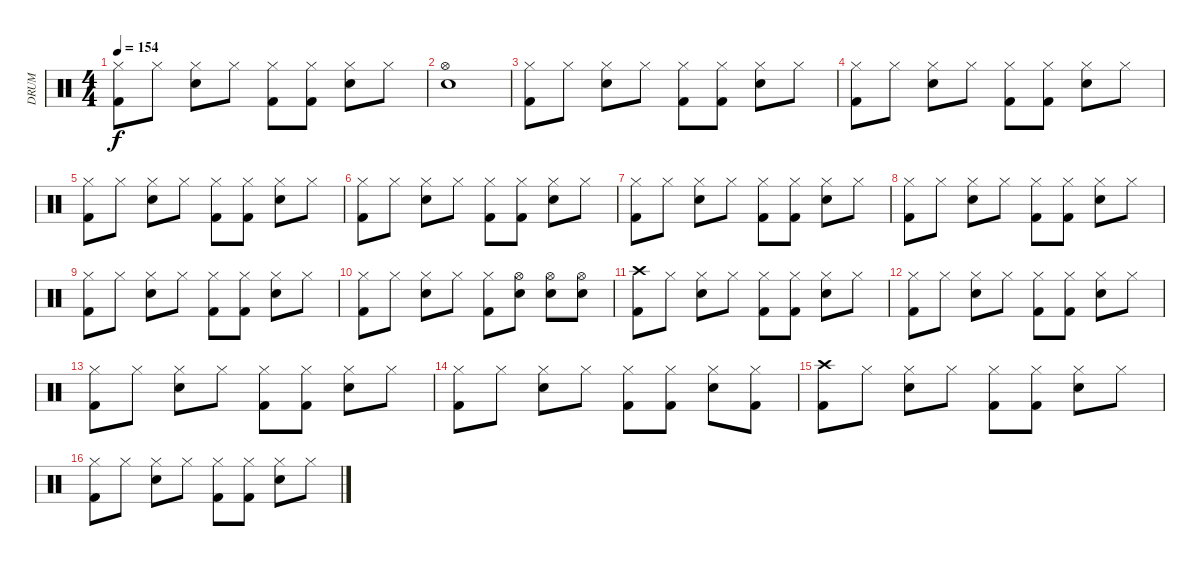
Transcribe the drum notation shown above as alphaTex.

\track ("DRUM" "DRUM") {instrument percussion}
\staff {score}
\articulation defaults
\ts (4 4)
\tempo 154
\clef neutral
\ks c
("Hi-Hat (closed)" "Kick (hit) 2").8{dy f} "Hi-Hat (closed)".8 ("Hi-Hat (closed)" "Snare (hit) 2").8 "Hi-Hat (closed)".8 ("Hi-Hat (closed)" "Kick (hit) 2").8 ("Hi-Hat (closed)" "Kick (hit) 2").8 ("Hi-Hat (closed)" "Snare (hit) 2").8 "Hi-Hat (closed)".8 |
("Hi-Hat (open)" "Snare (hit) 2").1 |
("Hi-Hat (closed)" "Kick (hit) 2").8 "Hi-Hat (closed)".8 ("Hi-Hat (closed)" "Snare (hit) 2").8 "Hi-Hat (closed)".8 ("Hi-Hat (closed)" "Kick (hit) 2").8 ("Hi-Hat (closed)" "Kick (hit) 2").8 ("Hi-Hat (closed)" "Snare (hit) 2").8 "Hi-Hat (closed)".8 |
("Hi-Hat (closed)" "Kick (hit) 2").8 "Hi-Hat (closed)".8 ("Hi-Hat (closed)" "Snare (hit) 2").8 "Hi-Hat (closed)".8 ("Hi-Hat (closed)" "Kick (hit) 2").8 ("Hi-Hat (closed)" "Kick (hit) 2").8 ("Hi-Hat (closed)" "Snare (hit) 2").8 "Hi-Hat (closed)".8 |
("Hi-Hat (closed)" "Kick (hit) 2").8 "Hi-Hat (closed)".8 ("Hi-Hat (closed)" "Snare (hit) 2").8 "Hi-Hat (closed)".8 ("Hi-Hat (closed)" "Kick (hit) 2").8 ("Hi-Hat (closed)" "Kick (hit) 2").8 ("Hi-Hat (closed)" "Snare (hit) 2").8 "Hi-Hat (closed)".8 |
("Hi-Hat (closed)" "Kick (hit) 2").8 "Hi-Hat (closed)".8 ("Hi-Hat (closed)" "Snare (hit) 2").8 "Hi-Hat (closed)".8 ("Hi-Hat (closed)" "Kick (hit) 2").8 ("Hi-Hat (closed)" "Kick (hit) 2").8 ("Hi-Hat (closed)" "Snare (hit) 2").8 "Hi-Hat (closed)".8 |
("Hi-Hat (closed)" "Kick (hit) 2").8 "Hi-Hat (closed)".8 ("Hi-Hat (closed)" "Snare (hit) 2").8 "Hi-Hat (closed)".8 ("Hi-Hat (closed)" "Kick (hit) 2").8 ("Hi-Hat (closed)" "Kick (hit) 2").8 ("Hi-Hat (closed)" "Snare (hit) 2").8 "Hi-Hat (closed)".8 |
("Hi-Hat (closed)" "Kick (hit) 2").8 "Hi-Hat (closed)".8 ("Hi-Hat (closed)" "Snare (hit) 2").8 "Hi-Hat (closed)".8 ("Hi-Hat (closed)" "Kick (hit) 2").8 ("Hi-Hat (closed)" "Kick (hit) 2").8 ("Hi-Hat (closed)" "Snare (hit) 2").8 "Hi-Hat (closed)".8 |
("Hi-Hat (closed)" "Kick (hit) 2").8 "Hi-Hat (closed)".8 ("Hi-Hat (closed)" "Snare (hit) 2").8 "Hi-Hat (closed)".8 ("Hi-Hat (closed)" "Kick (hit) 2").8 ("Hi-Hat (closed)" "Kick (hit) 2").8 ("Hi-Hat (closed)" "Snare (hit) 2").8 "Hi-Hat (closed)".8 |
("Hi-Hat (closed)" "Kick (hit) 2").8 "Hi-Hat (closed)".8 ("Hi-Hat (closed)" "Snare (hit) 2").8 "Hi-Hat (closed)".8 ("Hi-Hat (closed)" "Kick (hit) 2").8 ("Hi-Hat (open)" "Snare (hit) 2").8 ("Hi-Hat (open)" "Snare (hit) 2").8 ("Hi-Hat (open)" "Snare (hit) 2").8 |
("Crash high (hit)" "Kick (hit) 2").8 "Hi-Hat (closed)".8 ("Hi-Hat (closed)" "Snare (hit) 2").8 "Hi-Hat (closed)".8 ("Hi-Hat (closed)" "Kick (hit) 2").8 ("Hi-Hat (closed)" "Kick (hit) 2").8 ("Hi-Hat (closed)" "Snare (hit) 2").8 "Hi-Hat (closed)".8 |
("Hi-Hat (closed)" "Kick (hit) 2").8 "Hi-Hat (closed)".8 ("Hi-Hat (closed)" "Snare (hit) 2").8 "Hi-Hat (closed)".8 ("Hi-Hat (closed)" "Kick (hit) 2").8 ("Hi-Hat (closed)" "Kick (hit) 2").8 ("Hi-Hat (closed)" "Snare (hit) 2").8 "Hi-Hat (closed)".8 |
("Hi-Hat (closed)" "Kick (hit) 2").8 "Hi-Hat (closed)".8 ("Hi-Hat (closed)" "Snare (hit) 2").8 "Hi-Hat (closed)".8 ("Hi-Hat (closed)" "Kick (hit) 2").8 ("Hi-Hat (closed)" "Kick (hit) 2").8 ("Hi-Hat (closed)" "Snare (hit) 2").8 "Hi-Hat (closed)".8 |
("Hi-Hat (closed)" "Kick (hit) 2").8 "Hi-Hat (closed)".8 ("Hi-Hat (closed)" "Snare (hit) 2").8 "Hi-Hat (closed)".8 ("Hi-Hat (closed)" "Kick (hit) 2").8 ("Hi-Hat (closed)" "Kick (hit) 2").8 ("Hi-Hat (closed)" "Snare (hit) 2").8 ("Hi-Hat (closed)" "Kick (hit) 2").8 |
("Crash high (hit)" "Kick (hit) 2").8 "Hi-Hat (closed)".8 ("Hi-Hat (closed)" "Snare (hit) 2").8 "Hi-Hat (closed)".8 ("Hi-Hat (closed)" "Kick (hit) 2").8 ("Hi-Hat (closed)" "Kick (hit) 2").8 ("Hi-Hat (closed)" "Snare (hit) 2").8 "Hi-Hat (closed)".8 |
("Hi-Hat (closed)" "Kick (hit) 2").8 "Hi-Hat (closed)".8 ("Hi-Hat (closed)" "Snare (hit) 2").8 "Hi-Hat (closed)".8 ("Hi-Hat (closed)" "Kick (hit) 2").8 ("Hi-Hat (closed)" "Kick (hit) 2").8 ("Hi-Hat (closed)" "Snare (hit) 2").8 "Hi-Hat (closed)".8
